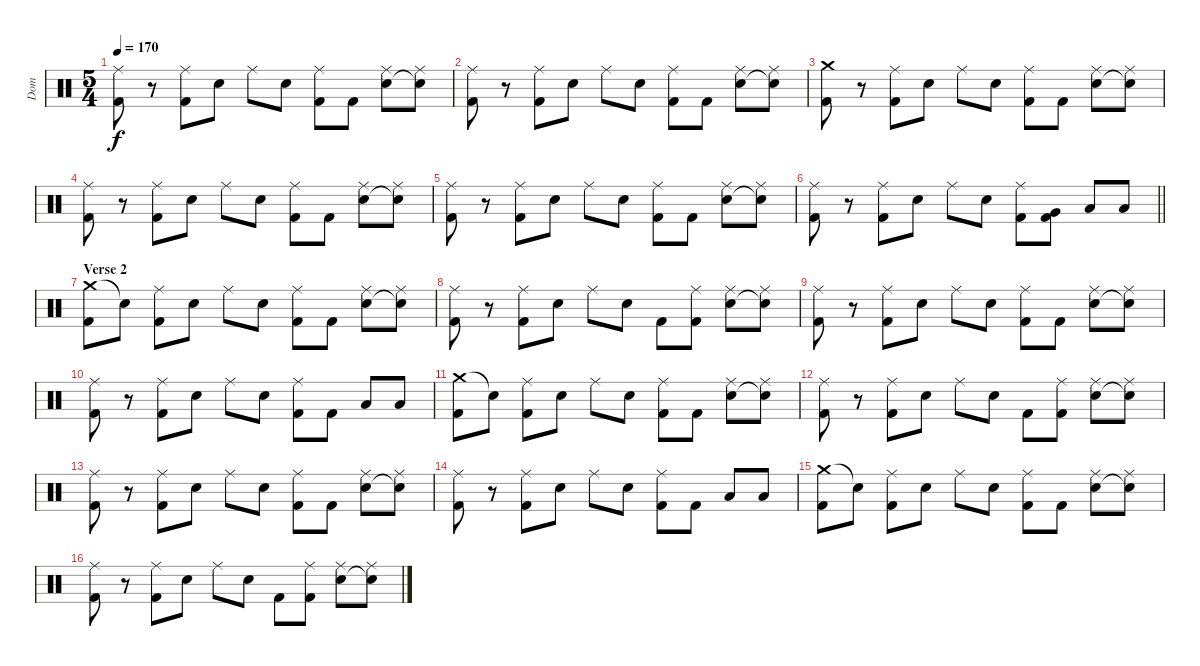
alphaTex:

\track ("Dom" "Dom") {instrument percussion}
\staff {score}
\articulation defaults
\ts (5 4)
\tempo 170
\clef neutral
\ks c
("Ride (middle)" "Kick (hit) 2").8{dy f} r.8 ("Ride (middle)" "Kick (hit) 2").8 "Electric Snare (hit)".8 "Ride (middle)".8 "Electric Snare (hit)".8 ("Ride (middle)" "Kick (hit) 2").8 "Kick (hit) 2".8 ("Ride (middle)" "Electric Snare (hit)").8 ("Ride (middle)" "Snare (hit)"{t}).8 |
("Ride (middle)" "Kick (hit) 2").8 r.8 ("Ride (middle)" "Kick (hit) 2").8 "Electric Snare (hit)".8 "Ride (middle)".8 "Electric Snare (hit)".8 ("Ride (middle)" "Kick (hit) 2").8 "Kick (hit) 2".8 ("Ride (middle)" "Electric Snare (hit)").8 ("Ride (middle)" "Snare (hit)"{t}).8 |
("Crash medium (hit)" "Kick (hit) 2").8 r.8 ("Ride (middle)" "Kick (hit) 2").8 "Electric Snare (hit)".8 "Ride (middle)".8 "Electric Snare (hit)".8 ("Ride (middle)" "Kick (hit) 2").8 "Kick (hit) 2".8 ("Ride (middle)" "Electric Snare (hit)").8 ("Ride (middle)" "Snare (hit)"{t}).8 |
("Ride (middle)" "Kick (hit) 2").8 r.8 ("Ride (middle)" "Kick (hit) 2").8 "Electric Snare (hit)".8 "Ride (middle)".8 "Electric Snare (hit)".8 ("Ride (middle)" "Kick (hit) 2").8 "Kick (hit) 2".8 ("Ride (middle)" "Electric Snare (hit)").8 ("Ride (middle)" "Snare (hit)"{t}).8 |
("Ride (middle)" "Kick (hit) 2").8 r.8 ("Ride (middle)" "Kick (hit) 2").8 "Electric Snare (hit)".8 "Ride (middle)".8 "Electric Snare (hit)".8 ("Ride (middle)" "Kick (hit) 2").8 "Kick (hit) 2".8 ("Ride (middle)" "Electric Snare (hit)").8 ("Ride (middle)" "Snare (hit)"{t}).8 |
\barLineRight lightlight
("Ride (middle)" "Kick (hit) 2").8 r.8 ("Ride (middle)" "Kick (hit) 2").8 "Electric Snare (hit)".8 "Ride (middle)".8 "Electric Snare (hit)".8 ("Ride (middle)" "Kick (hit) 2").8 ("Very Low Tom (hit)" "Kick (hit) 2").8 "Low Floor Tom (hit)".8 "Low Floor Tom (hit)".8 |
\section ("" "Verse 2")
("Crash medium (hit)" "Kick (hit) 2").8 "Snare (hit)"{t}.8 ("Ride (middle)" "Kick (hit) 2").8 "Electric Snare (hit)".8 "Ride (middle)".8 "Electric Snare (hit)".8 ("Ride (middle)" "Kick (hit) 2").8 "Kick (hit) 2".8 ("Ride (middle)" "Electric Snare (hit)").8 ("Ride (middle)" "Snare (hit)"{t}).8 |
("Ride (middle)" "Kick (hit) 2").8 r.8 ("Ride (middle)" "Kick (hit) 2").8 "Electric Snare (hit)".8 "Ride (middle)".8 "Electric Snare (hit)".8 "Kick (hit) 2".8 ("Ride (middle)" "Kick (hit) 2").8 ("Ride (middle)" "Electric Snare (hit)").8 ("Ride (middle)" "Snare (hit)"{t}).8 |
("Ride (middle)" "Kick (hit) 2").8 r.8 ("Ride (middle)" "Kick (hit) 2").8 "Electric Snare (hit)".8 "Ride (middle)".8 "Electric Snare (hit)".8 ("Ride (middle)" "Kick (hit) 2").8 "Kick (hit) 2".8 ("Ride (middle)" "Electric Snare (hit)").8 ("Ride (middle)" "Snare (hit)"{t}).8 |
("Ride (middle)" "Kick (hit) 2").8 r.8 ("Ride (middle)" "Kick (hit) 2").8 "Electric Snare (hit)".8 "Ride (middle)".8 "Electric Snare (hit)".8 ("Ride (middle)" "Kick (hit) 2").8 "Kick (hit) 2".8 "Low Tom (hit)".8 "Low Tom (hit)".8 |
("Crash medium (hit)" "Kick (hit) 2").8 "Snare (hit)"{t}.8 ("Ride (middle)" "Kick (hit) 2").8 "Electric Snare (hit)".8 "Ride (middle)".8 "Electric Snare (hit)".8 ("Ride (middle)" "Kick (hit) 2").8 "Kick (hit) 2".8 ("Ride (middle)" "Electric Snare (hit)").8 ("Ride (middle)" "Snare (hit)"{t}).8 |
("Ride (middle)" "Kick (hit) 2").8 r.8 ("Ride (middle)" "Kick (hit) 2").8 "Electric Snare (hit)".8 "Ride (middle)".8 "Electric Snare (hit)".8 "Kick (hit) 2".8 ("Ride (middle)" "Kick (hit) 2").8 ("Ride (middle)" "Electric Snare (hit)").8 ("Ride (middle)" "Snare (hit)"{t}).8 |
("Ride (middle)" "Kick (hit) 2").8 r.8 ("Ride (middle)" "Kick (hit) 2").8 "Electric Snare (hit)".8 "Ride (middle)".8 "Electric Snare (hit)".8 ("Ride (middle)" "Kick (hit) 2").8 "Kick (hit) 2".8 ("Ride (middle)" "Electric Snare (hit)").8 ("Ride (middle)" "Snare (hit)"{t}).8 |
("Ride (middle)" "Kick (hit) 2").8 r.8 ("Ride (middle)" "Kick (hit) 2").8 "Electric Snare (hit)".8 "Ride (middle)".8 "Electric Snare (hit)".8 ("Ride (middle)" "Kick (hit) 2").8 "Kick (hit) 2".8 "Low Tom (hit)".8 "Low Tom (hit)".8 |
("Crash medium (hit)" "Kick (hit) 2").8 "Snare (hit)"{t}.8 ("Ride (middle)" "Kick (hit) 2").8 "Electric Snare (hit)".8 "Ride (middle)".8 "Electric Snare (hit)".8 ("Ride (middle)" "Kick (hit) 2").8 "Kick (hit) 2".8 ("Ride (middle)" "Electric Snare (hit)").8 ("Ride (middle)" "Snare (hit)"{t}).8 |
("Ride (middle)" "Kick (hit) 2").8 r.8 ("Ride (middle)" "Kick (hit) 2").8 "Electric Snare (hit)".8 "Ride (middle)".8 "Electric Snare (hit)".8 "Kick (hit) 2".8 ("Ride (middle)" "Kick (hit) 2").8 ("Ride (middle)" "Electric Snare (hit)").8 ("Ride (middle)" "Snare (hit)"{t}).8
